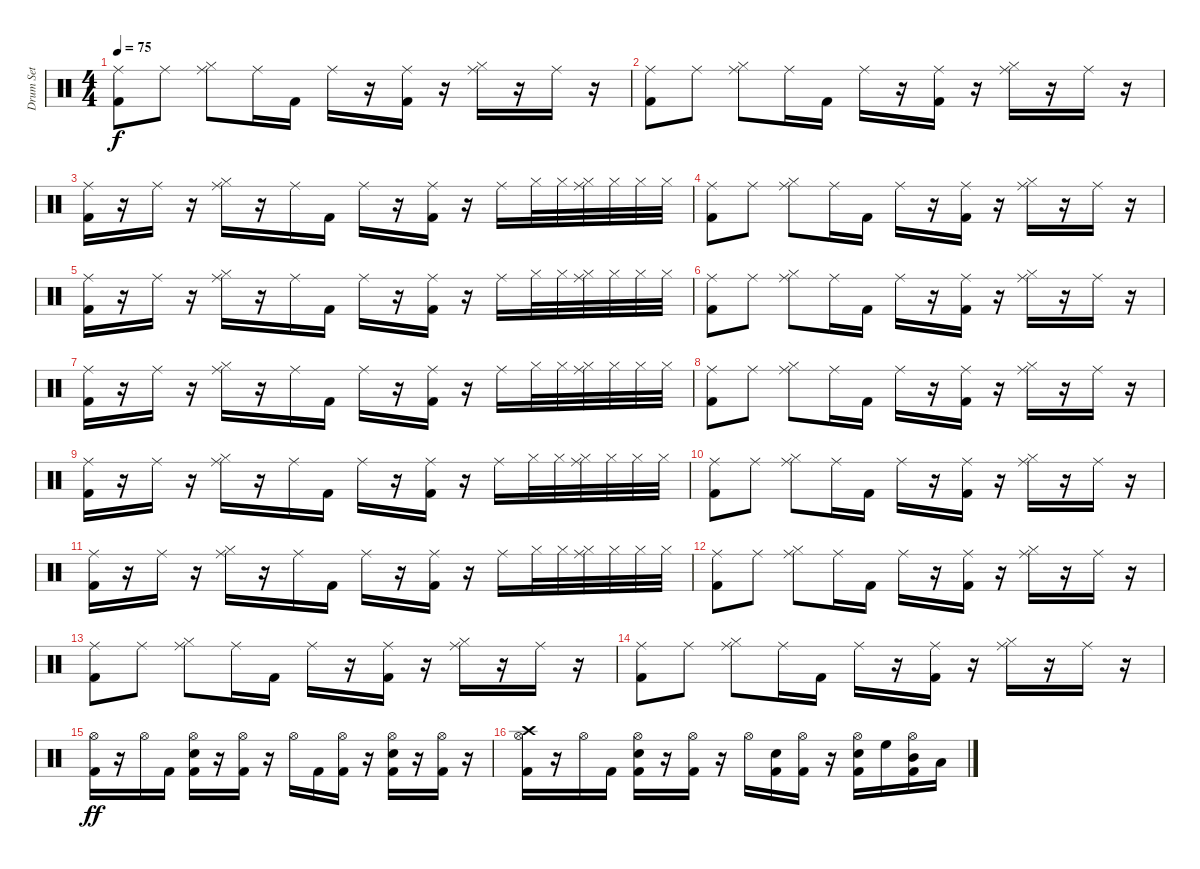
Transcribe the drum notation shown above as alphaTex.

\track ("Drum Set" "Drum Set") {instrument percussion}
\staff {score}
\articulation defaults
\ts (4 4)
\tempo 75
\clef neutral
\ks c
("Kick (hit) 2" "Ride (middle)").8{dy f} "Ride (middle)".8 ("Hi-Hat (closed)" "Ride (middle)").8 "Ride (middle)".16 "Kick (hit) 2".16 "Ride (middle)".16 r.16 ("Kick (hit) 2" "Ride (middle)").16 r.16 ("Hi-Hat (closed)" "Ride (middle)").16 r.16 "Ride (middle)".16 r.16 |
("Kick (hit) 2" "Ride (middle)").8 "Ride (middle)".8 ("Hi-Hat (closed)" "Ride (middle)").8 "Ride (middle)".16 "Kick (hit) 2".16 "Ride (middle)".16 r.16 ("Kick (hit) 2" "Ride (middle)").16 r.16 ("Hi-Hat (closed)" "Ride (middle)").16 r.16 "Ride (middle)".16 r.16 |
("Ride (middle)" "Kick (hit) 2").16 r.16 "Ride (middle)".16 r.16 ("Hi-Hat (closed)" "Ride (middle)").16 r.16 "Ride (middle)".16 "Kick (hit) 2".16 "Ride (middle)".16 r.16 ("Ride (middle)" "Kick (hit) 2").16 r.16 "Ride (middle)".16 "Hi-Hat (closed)".32 "Hi-Hat (closed)".32 ("Hi-Hat (closed)" "Ride (middle)").32 "Hi-Hat (closed)".32 "Hi-Hat (closed)".32 "Hi-Hat (closed)".32 |
("Kick (hit) 2" "Ride (middle)").8 "Ride (middle)".8 ("Hi-Hat (closed)" "Ride (middle)").8 "Ride (middle)".16 "Kick (hit) 2".16 "Ride (middle)".16 r.16 ("Kick (hit) 2" "Ride (middle)").16 r.16 ("Hi-Hat (closed)" "Ride (middle)").16 r.16 "Ride (middle)".16 r.16 |
("Ride (middle)" "Kick (hit) 2").16 r.16 "Ride (middle)".16 r.16 ("Hi-Hat (closed)" "Ride (middle)").16 r.16 "Ride (middle)".16 "Kick (hit) 2".16 "Ride (middle)".16 r.16 ("Ride (middle)" "Kick (hit) 2").16 r.16 "Ride (middle)".16 "Hi-Hat (closed)".32 "Hi-Hat (closed)".32 ("Hi-Hat (closed)" "Ride (middle)").32 "Hi-Hat (closed)".32 "Hi-Hat (closed)".32 "Hi-Hat (closed)".32 |
("Kick (hit) 2" "Ride (middle)").8 "Ride (middle)".8 ("Hi-Hat (closed)" "Ride (middle)").8 "Ride (middle)".16 "Kick (hit) 2".16 "Ride (middle)".16 r.16 ("Kick (hit) 2" "Ride (middle)").16 r.16 ("Hi-Hat (closed)" "Ride (middle)").16 r.16 "Ride (middle)".16 r.16 |
("Ride (middle)" "Kick (hit) 2").16 r.16 "Ride (middle)".16 r.16 ("Hi-Hat (closed)" "Ride (middle)").16 r.16 "Ride (middle)".16 "Kick (hit) 2".16 "Ride (middle)".16 r.16 ("Ride (middle)" "Kick (hit) 2").16 r.16 "Ride (middle)".16 "Hi-Hat (closed)".32 "Hi-Hat (closed)".32 ("Hi-Hat (closed)" "Ride (middle)").32 "Hi-Hat (closed)".32 "Hi-Hat (closed)".32 "Hi-Hat (closed)".32 |
("Kick (hit) 2" "Ride (middle)").8 "Ride (middle)".8 ("Hi-Hat (closed)" "Ride (middle)").8 "Ride (middle)".16 "Kick (hit) 2".16 "Ride (middle)".16 r.16 ("Kick (hit) 2" "Ride (middle)").16 r.16 ("Hi-Hat (closed)" "Ride (middle)").16 r.16 "Ride (middle)".16 r.16 |
("Ride (middle)" "Kick (hit) 2").16 r.16 "Ride (middle)".16 r.16 ("Hi-Hat (closed)" "Ride (middle)").16 r.16 "Ride (middle)".16 "Kick (hit) 2".16 "Ride (middle)".16 r.16 ("Ride (middle)" "Kick (hit) 2").16 r.16 "Ride (middle)".16 "Hi-Hat (closed)".32 "Hi-Hat (closed)".32 ("Hi-Hat (closed)" "Ride (middle)").32 "Hi-Hat (closed)".32 "Hi-Hat (closed)".32 "Hi-Hat (closed)".32 |
("Kick (hit) 2" "Ride (middle)").8 "Ride (middle)".8 ("Hi-Hat (closed)" "Ride (middle)").8 "Ride (middle)".16 "Kick (hit) 2".16 "Ride (middle)".16 r.16 ("Kick (hit) 2" "Ride (middle)").16 r.16 ("Hi-Hat (closed)" "Ride (middle)").16 r.16 "Ride (middle)".16 r.16 |
("Ride (middle)" "Kick (hit) 2").16 r.16 "Ride (middle)".16 r.16 ("Hi-Hat (closed)" "Ride (middle)").16 r.16 "Ride (middle)".16 "Kick (hit) 2".16 "Ride (middle)".16 r.16 ("Ride (middle)" "Kick (hit) 2").16 r.16 "Ride (middle)".16 "Hi-Hat (closed)".32 "Hi-Hat (closed)".32 ("Hi-Hat (closed)" "Ride (middle)").32 "Hi-Hat (closed)".32 "Hi-Hat (closed)".32 "Hi-Hat (closed)".32 |
("Kick (hit) 2" "Ride (middle)").8 "Ride (middle)".8 ("Hi-Hat (closed)" "Ride (middle)").8 "Ride (middle)".16 "Kick (hit) 2".16 "Ride (middle)".16 r.16 ("Kick (hit) 2" "Ride (middle)").16 r.16 ("Hi-Hat (closed)" "Ride (middle)").16 r.16 "Ride (middle)".16 r.16 |
("Kick (hit) 2" "Ride (middle)").8 "Ride (middle)".8 ("Hi-Hat (closed)" "Ride (middle)").8 "Ride (middle)".16 "Kick (hit) 2".16 "Ride (middle)".16 r.16 ("Kick (hit) 2" "Ride (middle)").16 r.16 ("Hi-Hat (closed)" "Ride (middle)").16 r.16 "Ride (middle)".16 r.16 |
("Kick (hit) 2" "Ride (middle)").8 "Ride (middle)".8 ("Hi-Hat (closed)" "Ride (middle)").8 "Ride (middle)".16 "Kick (hit) 2".16 "Ride (middle)".16 r.16 ("Kick (hit) 2" "Ride (middle)").16 r.16 ("Hi-Hat (closed)" "Ride (middle)").16 r.16 "Ride (middle)".16 r.16 |
("Hi-Hat (open)" "Kick (hit) 2").16{dy ff} r.16 "Hi-Hat (open)".16 "Kick (hit) 2".16 ("Hi-Hat (open)" "Snare (hit) 2" "Kick (hit) 2").16 r.16 ("Hi-Hat (open)" "Kick (hit) 2").16 r.16 "Hi-Hat (open)".16 "Kick (hit) 2".16 ("Hi-Hat (open)" "Kick (hit) 2").16 r.16 ("Hi-Hat (open)" "Snare (hit) 2" "Kick (hit) 2").16 r.16 ("Hi-Hat (open)" "Kick (hit) 2").16 r.16 |
("Hi-Hat (open)" "Crash high (hit)" "Kick (hit) 2").16 r.16 "Hi-Hat (open)".16 "Kick (hit) 2".16 ("Hi-Hat (open)" "Snare (hit) 2" "Kick (hit) 2").16 r.16 ("Hi-Hat (open)" "Kick (hit) 2").16 r.16 "Hi-Hat (open)".16 ("Snare (hit) 2" "Kick (hit) 2").16 ("Hi-Hat (open)" "Kick (hit) 2").16 r.16 ("Hi-Hat (open)" "Snare (hit) 2" "Kick (hit) 2").16 "High Floor Tom (hit)".16 ("Hi-Hat (open)" "Mid Tom (hit)" "Kick (hit) 2").16 "Low Tom (hit)".16
